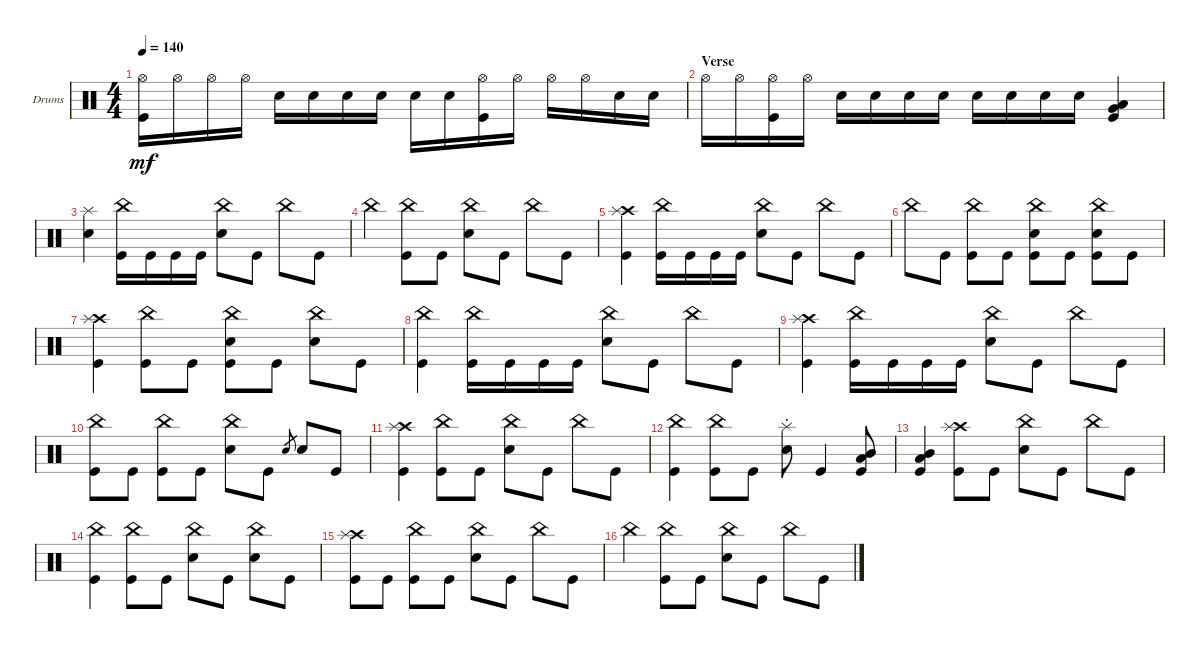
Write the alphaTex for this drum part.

\bracketExtendMode groupsimilarinstruments
\firstSystemTrackNameOrientation horizontal
\otherSystemsTrackNameOrientation horizontal
\track ("Drumkit" "Drums") {instrument percussion}
\staff {score}
\articulation defaults
\ts (4 4)
\tempo 140
\clef neutral
\ks c
("Kick (hit)" "Hi-Hat (open)").16{dy mf} "Hi-Hat (open)".16 "Hi-Hat (open)".16 "Hi-Hat (open)".16 "Snare (hit) 2".16 "Snare (hit) 2".16 "Snare (hit) 2".16 "Snare (hit) 2".16 "Snare (hit) 2".16 "Snare (hit) 2".16 ("Kick (hit)" "Hi-Hat (open)").16 "Hi-Hat (open)".16 "Hi-Hat (open)".16 "Hi-Hat (open)".16 "Snare (hit) 2".16 "Snare (hit) 2".16 |
\section ("" "Verse")
"Hi-Hat (open)".16 "Hi-Hat (open)".16 ("Hi-Hat (open)" "Kick (hit)").16 "Hi-Hat (open)".16 "Snare (hit) 2".16 "Snare (hit) 2".16 "Snare (hit) 2".16 "Snare (hit) 2".16 "Snare (hit) 2".16 "Snare (hit) 2".16 "Snare (hit) 2".16 "Snare (hit) 2".16 ("Very Low Tom (hit)" "Kick (hit)" "Low Tom (hit)").4 |
("Snare (hit) 2" "Splash (hit)").4 ("China (hit)" "Kick (hit)").16 "Kick (hit)".16 "Kick (hit)".16 "Kick (hit)".16 ("Snare (hit) 2" "China (hit)").8 "Kick (hit)".8 "China (hit)".8 "Kick (hit)".8 |
"China (hit)".4 ("Kick (hit)" "China (hit)").8 "Kick (hit)".8 ("Snare (hit) 2" "China (hit)").8 "Kick (hit)".8 "China (hit)".8 "Kick (hit)".8 |
("Crash high (hit)" "Splash (hit)" "Kick (hit)").4 ("China (hit)" "Kick (hit)").16 "Kick (hit)".16 "Kick (hit)".16 "Kick (hit)".16 ("Snare (hit) 2" "China (hit)").8 "Kick (hit)".8 "China (hit)".8 "Kick (hit)".8 |
"China (hit)".8 "Kick (hit)".8 ("Kick (hit)" "China (hit)").8 "Kick (hit)".8 ("Snare (hit) 2" "China (hit)" "Kick (hit)").8 "Kick (hit)".8 ("China (hit)" "Kick (hit)" "Snare (hit) 2").8 "Kick (hit)".8 |
("Crash high (hit)" "Splash (hit)" "Kick (hit)").4 ("Kick (hit)" "China (hit)").8 "Kick (hit)".8 ("Kick (hit)" "Snare (hit) 2" "China (hit)").8 "Kick (hit)".8 ("China (hit)" "Snare (hit) 2").8 "Kick (hit)".8 |
("Kick (hit)" "China (hit)").4 ("Kick (hit)" "China (hit)").16 "Kick (hit)".16 "Kick (hit)".16 "Kick (hit)".16 ("Snare (hit) 2" "China (hit)").8 "Kick (hit)".8 "China (hit)".8 "Kick (hit)".8 |
("Crash high (hit)" "Splash (hit)" "Kick (hit)").4 ("Kick (hit)" "China (hit)").16 "Kick (hit)".16 "Kick (hit)".16 "Kick (hit)".16 ("Snare (hit) 2" "China (hit)").8 "Kick (hit)".8 "China (hit)".8 "Kick (hit)".8 |
("Kick (hit)" "China (hit)").8 "Kick (hit)".8 ("Kick (hit)" "China (hit)").8 "Kick (hit)".8 ("Snare (hit) 2" "China (hit)").8 "Kick (hit)".8 "Snare (hit) 2".8{gr} "Snare (hit) 2".8 "Kick (hit)".8 |
("Crash high (hit)" "Splash (hit)" "Kick (hit)").4 ("Kick (hit)" "China (hit)").8 "Kick (hit)".8 ("Snare (hit) 2" "China (hit)").8 "Kick (hit)".8 "China (hit)".8 "Kick (hit)".8 |
("Kick (hit)" "China (hit)").4 ("Kick (hit)" "China (hit)").8 "Kick (hit)".8 ("Snare (hit) 2"{st} "Splash (hit)").8 "Kick (hit)".4 ("Kick (hit)" "Low Tom (hit)" "Mid Tom (hit)").8 |
("Kick (hit)" "Mid Tom (hit)" "Low Tom (hit)").4 ("Crash high (hit)" "Splash (hit)" "Kick (hit)").8 "Kick (hit)".8 ("Snare (hit) 2" "China (hit)").8 "Kick (hit)".8 "China (hit)".8 "Kick (hit)".8 |
("Kick (hit)" "China (hit)").4 ("Kick (hit)" "China (hit)").8 "Kick (hit)".8 ("Snare (hit) 2" "China (hit)").8 "Kick (hit)".8 ("Snare (hit) 2" "China (hit)").8 "Kick (hit)".8 |
("Crash high (hit)" "Splash (hit)" "Kick (hit)").8 "Kick (hit)".8 ("Kick (hit)" "China (hit)").8 "Kick (hit)".8 ("Snare (hit) 2" "China (hit)").8 "Kick (hit)".8 "China (hit)".8 "Kick (hit)".8 |
"China (hit)".4 ("Kick (hit)" "China (hit)").8 "Kick (hit)".8 ("Snare (hit) 2" "China (hit)").8 "Kick (hit)".8 "China (hit)".8 "Kick (hit)".8
